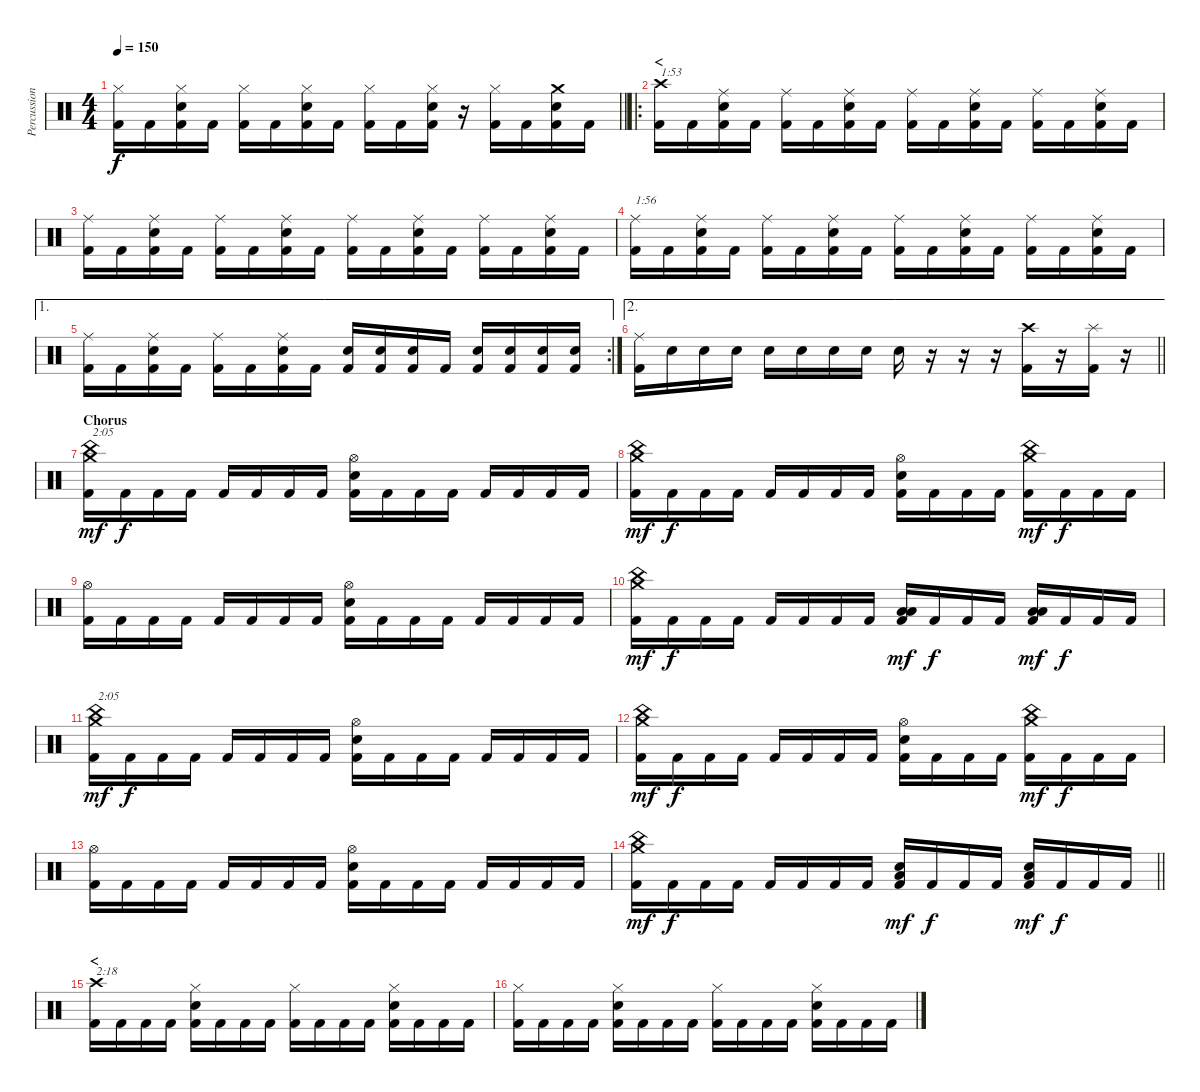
\track ("Percussion" "Percussion") {instrument percussion}
\staff {score}
\articulation defaults
\ts (4 4)
\tempo 150
\clef neutral
\barLineRight lightlight
\ks c
("Hi-Hat (closed)" "Kick (hit) 2").16{dy f} "Kick (hit) 2".16 ("Hi-Hat (closed)" "Electric Snare (hit)" "Kick (hit) 2").16 "Kick (hit) 2".16 ("Hi-Hat (closed)" "Kick (hit) 2").16 "Kick (hit) 2".16 ("Hi-Hat (closed)" "Electric Snare (hit)" "Kick (hit) 2").16 "Kick (hit) 2".16 ("Hi-Hat (closed)" "Kick (hit) 2").16 "Kick (hit) 2".16 ("Hi-Hat (closed)" "Electric Snare (hit)" "Kick (hit) 2").16 r.16 ("Hi-Hat (closed)" "Kick (hit) 2").16 "Kick (hit) 2".16 ("Crash medium (hit)" "Electric Snare (hit)" "Kick (hit) 2").16 "Kick (hit) 2".16 |
\ro
\section ("" "<")
("Crash high (hit)" "Kick (hit) 2").16{txt "1:53"} "Kick (hit) 2".16 ("Ride (middle)" "Electric Snare (hit)" "Kick (hit) 2").16 "Kick (hit) 2".16 ("Ride (middle)" "Kick (hit) 2").16 "Kick (hit) 2".16 ("Ride (middle)" "Electric Snare (hit)" "Kick (hit) 2").16 "Kick (hit) 2".16 ("Ride (middle)" "Kick (hit) 2").16 "Kick (hit) 2".16 ("Ride (middle)" "Electric Snare (hit)" "Kick (hit) 2").16 "Kick (hit) 2".16 ("Ride (middle)" "Kick (hit) 2").16 "Kick (hit) 2".16 ("Ride (middle)" "Electric Snare (hit)" "Kick (hit) 2").16 "Kick (hit) 2".16 |
("Ride (middle)" "Kick (hit) 2").16 "Kick (hit) 2".16 ("Ride (middle)" "Electric Snare (hit)" "Kick (hit) 2").16 "Kick (hit) 2".16 ("Ride (middle)" "Kick (hit) 2").16 "Kick (hit) 2".16 ("Ride (middle)" "Electric Snare (hit)" "Kick (hit) 2").16 "Kick (hit) 2".16 ("Ride (middle)" "Kick (hit) 2").16 "Kick (hit) 2".16 ("Ride (middle)" "Electric Snare (hit)" "Kick (hit) 2").16 "Kick (hit) 2".16 ("Ride (middle)" "Kick (hit) 2").16 "Kick (hit) 2".16 ("Ride (middle)" "Electric Snare (hit)" "Kick (hit) 2").16 "Kick (hit) 2".16 |
("Ride (middle)" "Kick (hit) 2").16{txt "1:56"} "Kick (hit) 2".16 ("Ride (middle)" "Electric Snare (hit)" "Kick (hit) 2").16 "Kick (hit) 2".16 ("Ride (middle)" "Kick (hit) 2").16 "Kick (hit) 2".16 ("Ride (middle)" "Electric Snare (hit)" "Kick (hit) 2").16 "Kick (hit) 2".16 ("Ride (middle)" "Kick (hit) 2").16 "Kick (hit) 2".16 ("Ride (middle)" "Electric Snare (hit)" "Kick (hit) 2").16 "Kick (hit) 2".16 ("Ride (middle)" "Kick (hit) 2").16 "Kick (hit) 2".16 ("Ride (middle)" "Electric Snare (hit)" "Kick (hit) 2").16 "Kick (hit) 2".16 |
\ae 1
\rc 2
("Ride (middle)" "Kick (hit) 2").16 "Kick (hit) 2".16 ("Ride (middle)" "Electric Snare (hit)" "Kick (hit) 2").16 "Kick (hit) 2".16 ("Ride (middle)" "Kick (hit) 2").16 "Kick (hit) 2".16 ("Ride (middle)" "Electric Snare (hit)" "Kick (hit) 2").16 "Kick (hit) 2".16 ("Electric Snare (hit)" "Kick (hit) 2").16 ("Electric Snare (hit)" "Kick (hit) 2").16 ("Electric Snare (hit)" "Kick (hit) 2").16 "Kick (hit) 2".16 ("Electric Snare (hit)" "Kick (hit) 2").16 ("Electric Snare (hit)" "Kick (hit) 2").16 ("Electric Snare (hit)" "Kick (hit) 2").16 ("Electric Snare (hit)" "Kick (hit) 2").16 |
\ae 2
\barLineRight lightlight
("Ride (middle)" "Kick (hit) 2").16 "Electric Snare (hit)".16 "Electric Snare (hit)".16 "Electric Snare (hit)".16 "Electric Snare (hit)".16 "Electric Snare (hit)".16 "Electric Snare (hit)".16 "Electric Snare (hit)".16 "Electric Snare (hit)".16 r.16 r.16 r.16 ("Crash high (hit)" "Kick (hit) 2").16 r.16 ("Splash (hit)" "Kick (hit) 2").16 r.16 |
\section ("" "Chorus")
("Crash medium (hit)" "China (hit)" "Kick (hit) 2").16{txt "2:05" dy mf} "Kick (hit) 2".16{dy f} "Kick (hit) 2".16 "Kick (hit) 2".16 "Kick (hit) 2".16 "Kick (hit) 2".16 "Kick (hit) 2".16 "Kick (hit) 2".16 ("Hi-Hat (open)" "Electric Snare (hit)" "Kick (hit) 2").16 "Kick (hit) 2".16 "Kick (hit) 2".16 "Kick (hit) 2".16 "Kick (hit) 2".16 "Kick (hit) 2".16 "Kick (hit) 2".16 "Kick (hit) 2".16 |
("Crash medium (hit)" "China (hit)" "Kick (hit) 2").16{dy mf} "Kick (hit) 2".16{dy f} "Kick (hit) 2".16 "Kick (hit) 2".16 "Kick (hit) 2".16 "Kick (hit) 2".16 "Kick (hit) 2".16 "Kick (hit) 2".16 ("Hi-Hat (open)" "Electric Snare (hit)" "Kick (hit) 2").16 "Kick (hit) 2".16 "Kick (hit) 2".16 "Kick (hit) 2".16 ("Crash medium (hit)" "China (hit)" "Kick (hit) 2").16{dy mf} "Kick (hit) 2".16{dy f} "Kick (hit) 2".16 "Kick (hit) 2".16 |
("Hi-Hat (open)" "Kick (hit) 2").16 "Kick (hit) 2".16 "Kick (hit) 2".16 "Kick (hit) 2".16 "Kick (hit) 2".16 "Kick (hit) 2".16 "Kick (hit) 2".16 "Kick (hit) 2".16 ("Hi-Hat (open)" "Electric Snare (hit)" "Kick (hit) 2").16 "Kick (hit) 2".16 "Kick (hit) 2".16 "Kick (hit) 2".16 "Kick (hit) 2".16 "Kick (hit) 2".16 "Kick (hit) 2".16 "Kick (hit) 2".16 |
("Crash medium (hit)" "China (hit)" "Kick (hit) 2").16{dy mf} "Kick (hit) 2".16{dy f} "Kick (hit) 2".16 "Kick (hit) 2".16 "Kick (hit) 2".16 "Kick (hit) 2".16 "Kick (hit) 2".16 "Kick (hit) 2".16 ("Low Tom (hit)" "Low Floor Tom (hit)" "Kick (hit) 2").16{dy mf} "Kick (hit) 2".16{dy f} "Kick (hit) 2".16 "Kick (hit) 2".16 ("Low Tom (hit)" "Low Floor Tom (hit)" "Kick (hit) 2").16{dy mf} "Kick (hit) 2".16{dy f} "Kick (hit) 2".16 "Kick (hit) 2".16 |
("Crash medium (hit)" "China (hit)" "Kick (hit) 2").16{txt "2:05" dy mf} "Kick (hit) 2".16{dy f} "Kick (hit) 2".16 "Kick (hit) 2".16 "Kick (hit) 2".16 "Kick (hit) 2".16 "Kick (hit) 2".16 "Kick (hit) 2".16 ("Hi-Hat (open)" "Electric Snare (hit)" "Kick (hit) 2").16 "Kick (hit) 2".16 "Kick (hit) 2".16 "Kick (hit) 2".16 "Kick (hit) 2".16 "Kick (hit) 2".16 "Kick (hit) 2".16 "Kick (hit) 2".16 |
("Crash medium (hit)" "China (hit)" "Kick (hit) 2").16{dy mf} "Kick (hit) 2".16{dy f} "Kick (hit) 2".16 "Kick (hit) 2".16 "Kick (hit) 2".16 "Kick (hit) 2".16 "Kick (hit) 2".16 "Kick (hit) 2".16 ("Hi-Hat (open)" "Electric Snare (hit)" "Kick (hit) 2").16 "Kick (hit) 2".16 "Kick (hit) 2".16 "Kick (hit) 2".16 ("Crash medium (hit)" "China (hit)" "Kick (hit) 2").16{dy mf} "Kick (hit) 2".16{dy f} "Kick (hit) 2".16 "Kick (hit) 2".16 |
("Hi-Hat (open)" "Kick (hit) 2").16 "Kick (hit) 2".16 "Kick (hit) 2".16 "Kick (hit) 2".16 "Kick (hit) 2".16 "Kick (hit) 2".16 "Kick (hit) 2".16 "Kick (hit) 2".16 ("Hi-Hat (open)" "Electric Snare (hit)" "Kick (hit) 2").16 "Kick (hit) 2".16 "Kick (hit) 2".16 "Kick (hit) 2".16 "Kick (hit) 2".16 "Kick (hit) 2".16 "Kick (hit) 2".16 "Kick (hit) 2".16 |
\barLineRight lightlight
("Crash medium (hit)" "China (hit)" "Kick (hit) 2").16{dy mf} "Kick (hit) 2".16{dy f} "Kick (hit) 2".16 "Kick (hit) 2".16 "Kick (hit) 2".16 "Kick (hit) 2".16 "Kick (hit) 2".16 "Kick (hit) 2".16 ("Low Floor Tom (hit)" "Electric Snare (hit)" "Kick (hit) 2").16{dy mf} "Kick (hit) 2".16{dy f} "Kick (hit) 2".16 "Kick (hit) 2".16 ("Low Floor Tom (hit)" "Electric Snare (hit)" "Kick (hit) 2").16{dy mf} "Kick (hit) 2".16{dy f} "Kick (hit) 2".16 "Kick (hit) 2".16 |
\section ("" "<")
("Crash high (hit)" "Kick (hit) 2").16{txt "2:18"} "Kick (hit) 2".16 "Kick (hit) 2".16 "Kick (hit) 2".16 ("Hi-Hat (closed)" "Electric Snare (hit)" "Kick (hit) 2").16 "Kick (hit) 2".16 "Kick (hit) 2".16 "Kick (hit) 2".16 ("Hi-Hat (closed)" "Kick (hit) 2").16 "Kick (hit) 2".16 "Kick (hit) 2".16 "Kick (hit) 2".16 ("Hi-Hat (closed)" "Electric Snare (hit)" "Kick (hit) 2").16 "Kick (hit) 2".16 "Kick (hit) 2".16 "Kick (hit) 2".16 |
("Hi-Hat (closed)" "Kick (hit) 2").16 "Kick (hit) 2".16 "Kick (hit) 2".16 "Kick (hit) 2".16 ("Hi-Hat (closed)" "Electric Snare (hit)" "Kick (hit) 2").16 "Kick (hit) 2".16 "Kick (hit) 2".16 "Kick (hit) 2".16 ("Hi-Hat (closed)" "Kick (hit) 2").16 "Kick (hit) 2".16 "Kick (hit) 2".16 "Kick (hit) 2".16 ("Hi-Hat (closed)" "Electric Snare (hit)" "Kick (hit) 2").16 "Kick (hit) 2".16 "Kick (hit) 2".16 "Kick (hit) 2".16
